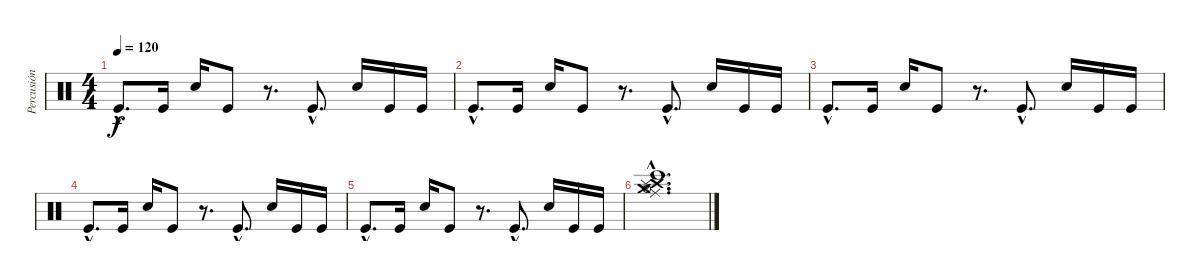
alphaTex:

\track ("Percusión" "Percusión") {instrument percussion}
\staff {score}
\articulation defaults
\ts (4 4)
\tempo 120
\clef neutral
\ks c "Kick (hit)"{hac}.8{d dy f} "Kick (hit)".16 "Snare (hit) 2".16 "Kick (hit)".8
r.8{d} "Kick (hit)"{hac}.8{d} "Snare (hit) 2".16 "Kick (hit)".16 "Kick (hit)".16 |
"Kick (hit)"{hac}.8{d} "Kick (hit)".16 "Snare (hit) 2".16 "Kick (hit)".8 r.8{d} "Kick (hit)"{hac}.8{d} "Snare (hit) 2".16 "Kick (hit)".16 "Kick (hit)".16 |
"Kick (hit)"{hac}.8{d} "Kick (hit)".16 "Snare (hit) 2".16 "Kick (hit)".8 r.8{d} "Kick (hit)"{hac}.8{d} "Snare (hit) 2".16 "Kick (hit)".16 "Kick (hit)".16 |
"Kick (hit)"{hac}.8{d} "Kick (hit)".16 "Snare (hit) 2".16 "Kick (hit)".8 r.8{d} "Kick (hit)"{hac}.8{d} "Snare (hit) 2".16 "Kick (hit)".16 "Kick (hit)".16 |
"Kick (hit)"{hac}.8{d} "Kick (hit)".16 "Snare (hit) 2".16 "Kick (hit)".8 r.8{d} "Kick (hit)"{hac}.8{d} "Snare (hit) 2".16 "Kick (hit)".16 "Kick (hit)".16 |
("Crash medium (hit)"{hac} "Bongo High (hit)"{hac} "Hi-Hat (open)"{hac} "Crash high (hit)"{hac} "Ride (middle)"{hac} "Splash (hit)"{hac}).1{d}
